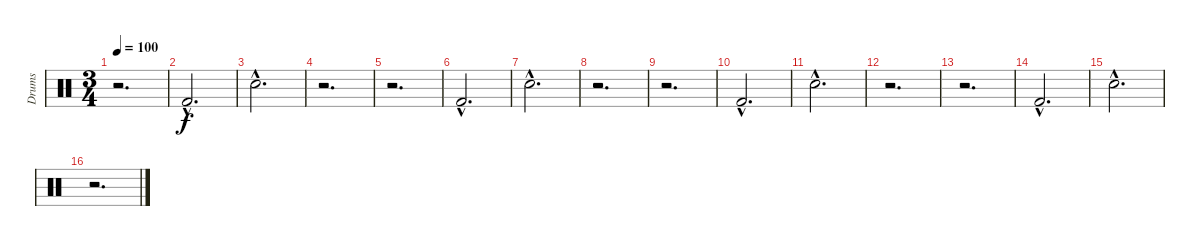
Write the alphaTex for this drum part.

\track ("Drums" "Drums") {instrument percussion}
\staff {score}
\articulation defaults
\ts (3 4)
\tempo 100
\clef neutral
\ks c
r.2{d dy f} |
"Kick (hit) 2"{hac}.2{d} |
"Electric Snare (hit)"{hac}.2{d} |
r.2{d} |
r.2{d} |
"Kick (hit) 2"{hac}.2{d} |
"Electric Snare (hit)"{hac}.2{d} |
r.2{d} |
r.2{d} |
"Kick (hit) 2"{hac}.2{d} |
"Electric Snare (hit)"{hac}.2{d} |
r.2{d} |
r.2{d} |
"Kick (hit) 2"{hac}.2{d} |
"Electric Snare (hit)"{hac}.2{d} |
r.2{d}
